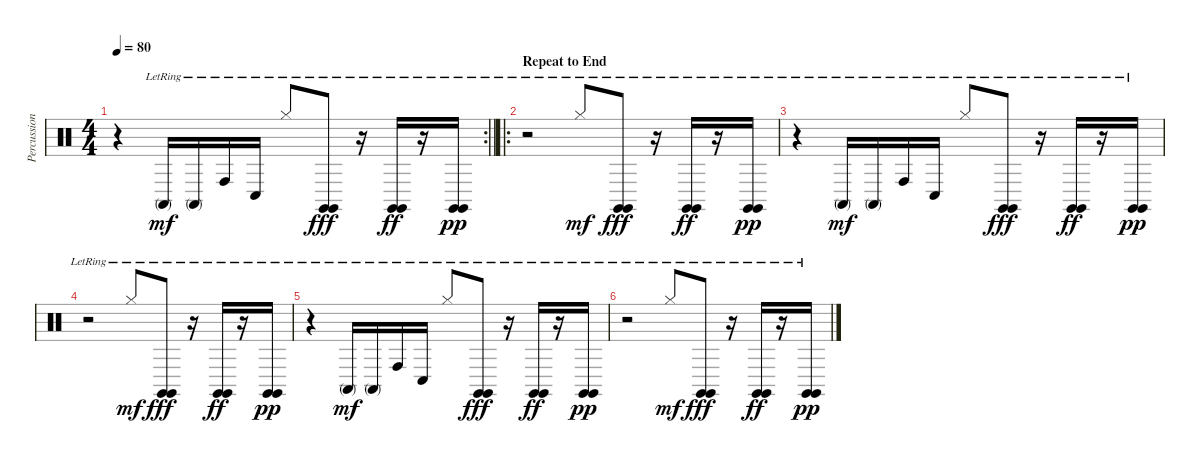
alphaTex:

\track ("Percussion" "Percussion") {instrument percussion}
\staff {score}
\articulation defaults
\rc 2
\ts (4 4)
\tempo 80
\clef neutral
\barLineRight lightlight
\ks c
r.4{dy pp} "Conga high (mute)"{lr}.16{dy mf} "Conga high (mute)"{lr}.16 "Conga high (hit)"{lr}.16{balance 5} "Conga low (hit)"{lr}.16{balance 3} "Hi-Hat (closed)"{lr}.8 ("Claves (hit)"{lr} "Claves (hit)"{lr}).8{dy fff balance 13} r.16 ("Claves (hit)"{lr} "Claves (hit)"{lr}).16{dy ff} r.16 ("Claves (hit)"{lr} "Claves (hit)"{lr}).16{dy pp} |
\ro
\section ("" "Repeat to End")
r.2 "Hi-Hat (closed)"{lr}.8{dy mf balance 3} ("Claves (hit)"{lr} "Claves (hit)"{lr}).8{dy fff balance 13} r.16 ("Claves (hit)"{lr} "Claves (hit)"{lr}).16{dy ff} r.16 ("Claves (hit)"{lr} "Claves (hit)"{lr}).16{dy pp} |
r.4 "Conga high (mute)"{lr}.16{dy mf} "Conga high (mute)"{lr}.16 "Conga high (hit)"{lr}.16{balance 5} "Conga low (hit)"{lr}.16{balance 3} "Hi-Hat (closed)"{lr}.8 ("Claves (hit)"{lr} "Claves (hit)"{lr}).8{dy fff balance 13} r.16 ("Claves (hit)"{lr} "Claves (hit)"{lr}).16{dy ff} r.16 ("Claves (hit)"{lr} "Claves (hit)"{lr}).16{dy pp} |
r.2 "Hi-Hat (closed)"{lr}.8{dy mf balance 3} ("Claves (hit)"{lr} "Claves (hit)"{lr}).8{dy fff balance 13} r.16 ("Claves (hit)"{lr} "Claves (hit)"{lr}).16{dy ff} r.16 ("Claves (hit)"{lr} "Claves (hit)"{lr}).16{dy pp} |
r.4 "Conga high (mute)"{lr}.16{dy mf} "Conga high (mute)"{lr}.16 "Conga high (hit)"{lr}.16{balance 5} "Conga low (hit)"{lr}.16{balance 3} "Hi-Hat (closed)"{lr}.8 ("Claves (hit)"{lr} "Claves (hit)"{lr}).8{dy fff balance 13} r.16 ("Claves (hit)"{lr} "Claves (hit)"{lr}).16{dy ff} r.16 ("Claves (hit)"{lr} "Claves (hit)"{lr}).16{dy pp} |
r.2 "Hi-Hat (closed)"{lr}.8{dy mf balance 3} ("Claves (hit)"{lr} "Claves (hit)"{lr}).8{dy fff balance 13} r.16 ("Claves (hit)"{lr} "Claves (hit)"{lr}).16{dy ff} r.16 ("Claves (hit)"{lr} "Claves (hit)"{lr}).16{dy pp}
